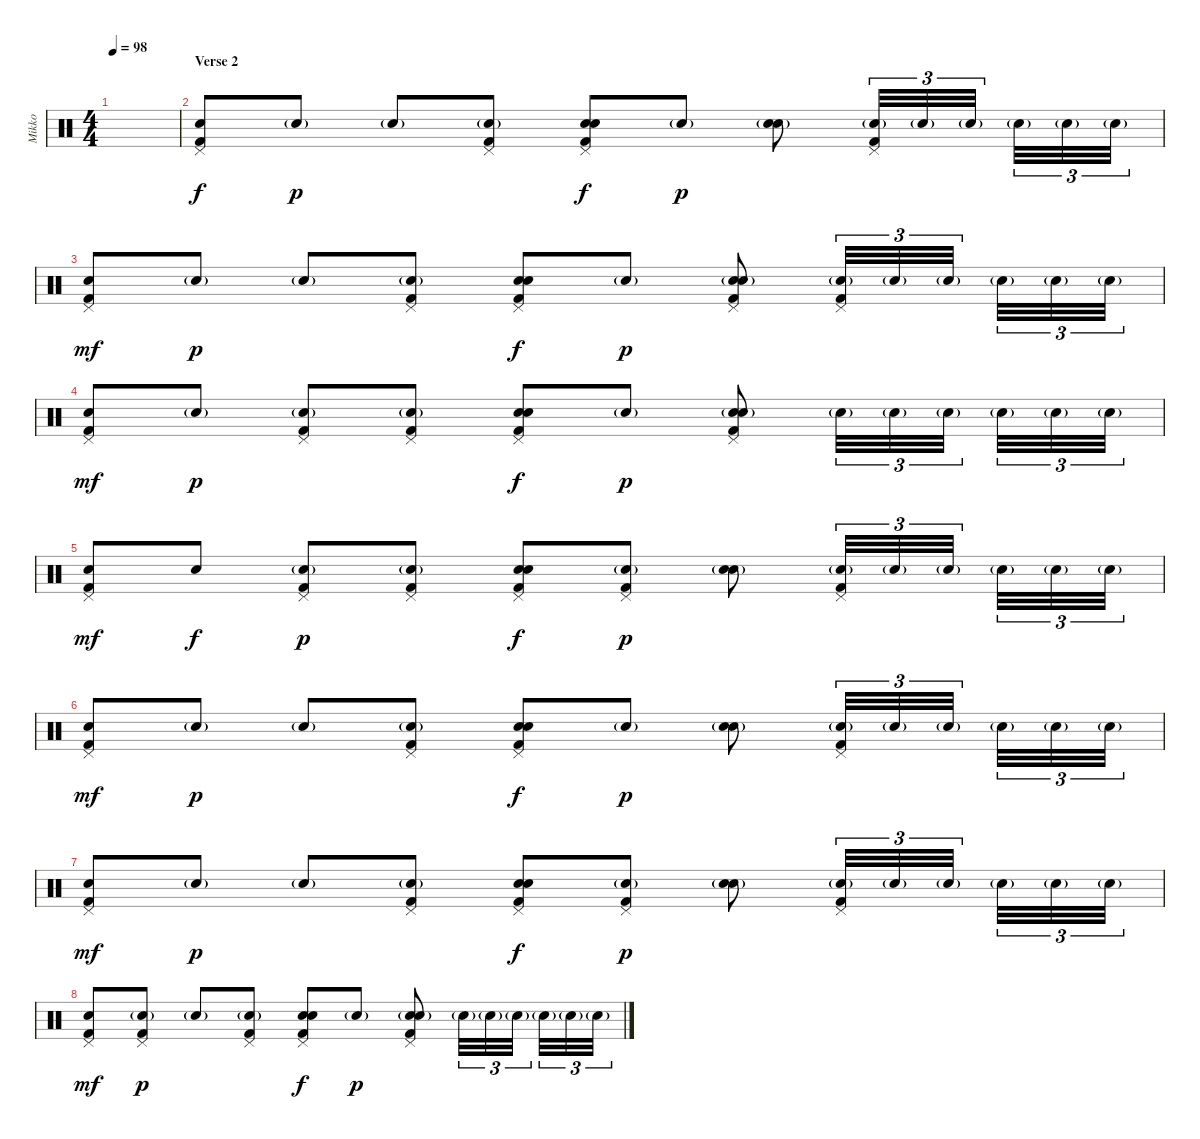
\track ("Mikko" "Mikko") {instrument percussion}
\staff {score}
\articulation defaults
\ts (4 4)
\tempo 98
\clef neutral
\ks c
|
\section ("" "Verse 2")
("Pedal Hi-Hat (hit)" "Electric Snare (hit)" "Kick (hit) 2").8{volume 13} "Electric Snare (hit)"{g}.8{dy p} "Electric Snare (hit)"{g}.8 ("Pedal Hi-Hat (hit)" "Electric Snare (hit)"{g} "Kick (hit) 2").8 ("Pedal Hi-Hat (hit)" "Electric Snare (hit)" "Electric Snare (hit)" "Kick (hit) 2").8{dy f} "Electric Snare (hit)"{g}.8{dy p} ("Electric Snare (hit)"{g} "Electric Snare (hit)"{g}).8 ("Pedal Hi-Hat (hit)" "Electric Snare (hit)"{g} "Kick (hit) 2").32{tu (3 2)} "Electric Snare (hit)"{g}.32{tu (3 2)} "Electric Snare (hit)"{g}.32{tu (3 2)} "Electric Snare (hit)"{g}.32{tu (3 2)} "Electric Snare (hit)"{g}.32{tu (3 2)} "Electric Snare (hit)"{g}.32{tu (3 2)} |
("Pedal Hi-Hat (hit)" "Electric Snare (hit)" "Kick (hit) 2").8{dy mf} "Electric Snare (hit)"{g}.8{dy p} "Electric Snare (hit)"{g}.8 ("Pedal Hi-Hat (hit)" "Electric Snare (hit)"{g} "Kick (hit) 2").8 ("Pedal Hi-Hat (hit)" "Electric Snare (hit)" "Electric Snare (hit)" "Kick (hit) 2").8{dy f} "Electric Snare (hit)"{g}.8{dy p} ("Pedal Hi-Hat (hit)" "Electric Snare (hit)"{g} "Electric Snare (hit)"{g} "Kick (hit) 2").8 ("Pedal Hi-Hat (hit)" "Electric Snare (hit)"{g} "Kick (hit) 2").32{tu (3 2)} "Electric Snare (hit)"{g}.32{tu (3 2)} "Electric Snare (hit)"{g}.32{tu (3 2)} "Electric Snare (hit)"{g}.32{tu (3 2)} "Electric Snare (hit)"{g}.32{tu (3 2)} "Electric Snare (hit)"{g}.32{tu (3 2)} |
("Pedal Hi-Hat (hit)" "Electric Snare (hit)" "Kick (hit) 2").8{dy mf} "Electric Snare (hit)"{g}.8{dy p} ("Pedal Hi-Hat (hit)" "Electric Snare (hit)"{g} "Kick (hit) 2").8 ("Pedal Hi-Hat (hit)" "Electric Snare (hit)"{g} "Kick (hit) 2").8 ("Pedal Hi-Hat (hit)" "Electric Snare (hit)" "Electric Snare (hit)" "Kick (hit) 2").8{dy f} "Electric Snare (hit)"{g}.8{dy p} ("Pedal Hi-Hat (hit)" "Electric Snare (hit)"{g} "Electric Snare (hit)"{g} "Kick (hit) 2").8 "Electric Snare (hit)"{g}.32{tu (3 2)} "Electric Snare (hit)"{g}.32{tu (3 2)} "Electric Snare (hit)"{g}.32{tu (3 2)} "Electric Snare (hit)"{g}.32{tu (3 2)} "Electric Snare (hit)"{g}.32{tu (3 2)} "Electric Snare (hit)"{g}.32{tu (3 2)} |
("Pedal Hi-Hat (hit)" "Electric Snare (hit)" "Kick (hit) 2").8{dy mf} "Electric Snare (hit)".8{dy f} ("Pedal Hi-Hat (hit)" "Electric Snare (hit)"{g} "Kick (hit) 2").8{dy p} ("Pedal Hi-Hat (hit)" "Electric Snare (hit)"{g} "Kick (hit) 2").8 ("Pedal Hi-Hat (hit)" "Electric Snare (hit)" "Electric Snare (hit)" "Kick (hit) 2").8{dy f} ("Pedal Hi-Hat (hit)" "Electric Snare (hit)"{g} "Kick (hit) 2").8{dy p} ("Electric Snare (hit)"{g} "Electric Snare (hit)"{g}).8 ("Pedal Hi-Hat (hit)" "Electric Snare (hit)"{g} "Kick (hit) 2").32{tu (3 2)} "Electric Snare (hit)"{g}.32{tu (3 2)} "Electric Snare (hit)"{g}.32{tu (3 2)} "Electric Snare (hit)"{g}.32{tu (3 2)} "Electric Snare (hit)"{g}.32{tu (3 2)} "Electric Snare (hit)"{g}.32{tu (3 2)} |
("Pedal Hi-Hat (hit)" "Electric Snare (hit)" "Kick (hit) 2").8{dy mf} "Electric Snare (hit)"{g}.8{dy p} "Electric Snare (hit)"{g}.8 ("Pedal Hi-Hat (hit)" "Electric Snare (hit)"{g} "Kick (hit) 2").8 ("Pedal Hi-Hat (hit)" "Electric Snare (hit)" "Electric Snare (hit)" "Kick (hit) 2").8{dy f} "Electric Snare (hit)"{g}.8{dy p} ("Electric Snare (hit)"{g} "Electric Snare (hit)"{g}).8 ("Pedal Hi-Hat (hit)" "Electric Snare (hit)"{g} "Kick (hit) 2").32{tu (3 2)} "Electric Snare (hit)"{g}.32{tu (3 2)} "Electric Snare (hit)"{g}.32{tu (3 2)} "Electric Snare (hit)"{g}.32{tu (3 2)} "Electric Snare (hit)"{g}.32{tu (3 2)} "Electric Snare (hit)"{g}.32{tu (3 2)} |
("Pedal Hi-Hat (hit)" "Electric Snare (hit)" "Kick (hit) 2").8{dy mf} "Electric Snare (hit)"{g}.8{dy p} "Electric Snare (hit)"{g}.8 ("Pedal Hi-Hat (hit)" "Electric Snare (hit)"{g} "Kick (hit) 2").8 ("Pedal Hi-Hat (hit)" "Electric Snare (hit)" "Electric Snare (hit)" "Kick (hit) 2").8{dy f} ("Pedal Hi-Hat (hit)" "Electric Snare (hit)"{g} "Kick (hit) 2").8{dy p} ("Electric Snare (hit)"{g} "Electric Snare (hit)"{g}).8 ("Pedal Hi-Hat (hit)" "Electric Snare (hit)"{g} "Kick (hit) 2").32{tu (3 2)} "Electric Snare (hit)"{g}.32{tu (3 2)} "Electric Snare (hit)"{g}.32{tu (3 2)} "Electric Snare (hit)"{g}.32{tu (3 2)} "Electric Snare (hit)"{g}.32{tu (3 2)} "Electric Snare (hit)"{g}.32{tu (3 2)} |
("Pedal Hi-Hat (hit)" "Electric Snare (hit)" "Kick (hit) 2").8{dy mf} ("Pedal Hi-Hat (hit)" "Electric Snare (hit)"{g} "Kick (hit) 2").8{dy p} "Electric Snare (hit)"{g}.8 ("Pedal Hi-Hat (hit)" "Electric Snare (hit)"{g} "Kick (hit) 2").8 ("Pedal Hi-Hat (hit)" "Electric Snare (hit)" "Electric Snare (hit)" "Kick (hit) 2").8{dy f} "Electric Snare (hit)"{g}.8{dy p} ("Pedal Hi-Hat (hit)" "Electric Snare (hit)"{g} "Electric Snare (hit)"{g} "Kick (hit) 2").8 "Electric Snare (hit)"{g}.32{tu (3 2)} "Electric Snare (hit)"{g}.32{tu (3 2)} "Electric Snare (hit)"{g}.32{tu (3 2)} "Electric Snare (hit)"{g}.32{tu (3 2)} "Electric Snare (hit)"{g}.32{tu (3 2)} "Electric Snare (hit)"{g}.32{tu (3 2)}
